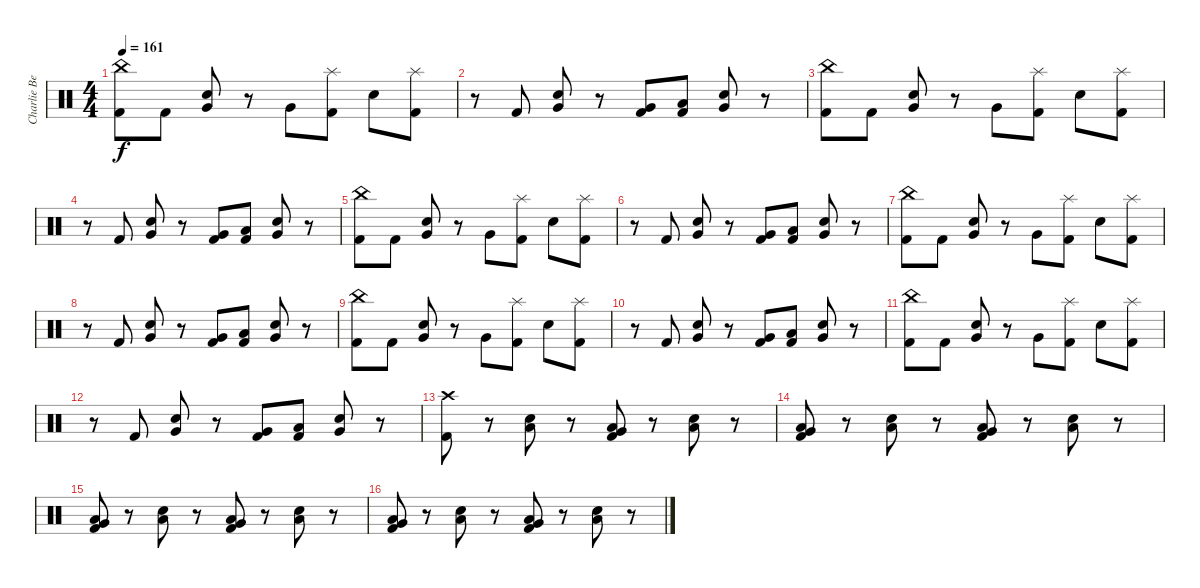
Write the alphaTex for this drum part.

\track ("Charlie Benante" "Charlie Be") {instrument percussion}
\staff {score}
\articulation defaults
\ts (4 4)
\tempo 161
\clef neutral
\ks c
("China (hit)" "Kick (hit) 2").8{dy f} "Kick (hit) 2".8 ("Very Low Tom (hit)" "Electric Snare (hit)").8 r.8 "Very Low Tom (hit)".8 ("Splash (hit)" "Kick (hit) 2").8 "Electric Snare (hit)".8 ("Splash (hit)" "Kick (hit) 2").8 |
r.8 "Kick (hit) 2".8 ("Very Low Tom (hit)" "Electric Snare (hit)").8 r.8 ("Very Low Tom (hit)" "Kick (hit) 2").8 ("Low Floor Tom (hit)" "Kick (hit) 2").8 ("Very Low Tom (hit)" "Electric Snare (hit)").8 r.8 |
("China (hit)" "Kick (hit) 2").8 "Kick (hit) 2".8 ("Very Low Tom (hit)" "Electric Snare (hit)").8 r.8 "Very Low Tom (hit)".8 ("Splash (hit)" "Kick (hit) 2").8 "Electric Snare (hit)".8 ("Splash (hit)" "Kick (hit) 2").8 |
r.8 "Kick (hit) 2".8 ("Very Low Tom (hit)" "Electric Snare (hit)").8 r.8 ("Very Low Tom (hit)" "Kick (hit) 2").8 ("Low Floor Tom (hit)" "Kick (hit) 2").8 ("Very Low Tom (hit)" "Electric Snare (hit)").8 r.8 |
("China (hit)" "Kick (hit) 2").8 "Kick (hit) 2".8 ("Very Low Tom (hit)" "Electric Snare (hit)").8 r.8 "Very Low Tom (hit)".8 ("Splash (hit)" "Kick (hit) 2").8 "Electric Snare (hit)".8 ("Splash (hit)" "Kick (hit) 2").8 |
r.8 "Kick (hit) 2".8 ("Very Low Tom (hit)" "Electric Snare (hit)").8 r.8 ("Very Low Tom (hit)" "Kick (hit) 2").8 ("Low Floor Tom (hit)" "Kick (hit) 2").8 ("Very Low Tom (hit)" "Electric Snare (hit)").8 r.8 |
("China (hit)" "Kick (hit) 2").8 "Kick (hit) 2".8 ("Very Low Tom (hit)" "Electric Snare (hit)").8 r.8 "Very Low Tom (hit)".8 ("Splash (hit)" "Kick (hit) 2").8 "Electric Snare (hit)".8 ("Splash (hit)" "Kick (hit) 2").8 |
r.8 "Kick (hit) 2".8 ("Very Low Tom (hit)" "Electric Snare (hit)").8 r.8 ("Very Low Tom (hit)" "Kick (hit) 2").8 ("Low Floor Tom (hit)" "Kick (hit) 2").8 ("Very Low Tom (hit)" "Electric Snare (hit)").8 r.8 |
("China (hit)" "Kick (hit) 2").8 "Kick (hit) 2".8 ("Very Low Tom (hit)" "Electric Snare (hit)").8 r.8 "Very Low Tom (hit)".8 ("Splash (hit)" "Kick (hit) 2").8 "Electric Snare (hit)".8 ("Splash (hit)" "Kick (hit) 2").8 |
r.8 "Kick (hit) 2".8 ("Very Low Tom (hit)" "Electric Snare (hit)").8 r.8 ("Very Low Tom (hit)" "Kick (hit) 2").8 ("Low Floor Tom (hit)" "Kick (hit) 2").8 ("Very Low Tom (hit)" "Electric Snare (hit)").8 r.8 |
("China (hit)" "Kick (hit) 2").8 "Kick (hit) 2".8 ("Very Low Tom (hit)" "Electric Snare (hit)").8 r.8 "Very Low Tom (hit)".8 ("Splash (hit)" "Kick (hit) 2").8 "Electric Snare (hit)".8 ("Splash (hit)" "Kick (hit) 2").8 |
r.8 "Kick (hit) 2".8 ("Very Low Tom (hit)" "Electric Snare (hit)").8 r.8 ("Very Low Tom (hit)" "Kick (hit) 2").8 ("Low Floor Tom (hit)" "Kick (hit) 2").8 ("Very Low Tom (hit)" "Electric Snare (hit)").8 r.8 |
("Crash high (hit)" "Kick (hit) 2").8 r.8 ("Low Floor Tom (hit)" "Electric Snare (hit)").8 r.8 ("Low Floor Tom (hit)" "Very Low Tom (hit)" "Kick (hit) 2").8 r.8 ("Low Floor Tom (hit)" "Electric Snare (hit)").8 r.8 |
("Low Floor Tom (hit)" "Very Low Tom (hit)" "Kick (hit) 2").8 r.8 ("Low Floor Tom (hit)" "Electric Snare (hit)").8 r.8 ("Low Floor Tom (hit)" "Very Low Tom (hit)" "Kick (hit) 2").8 r.8 ("Low Floor Tom (hit)" "Electric Snare (hit)").8 r.8 |
("Low Floor Tom (hit)" "Very Low Tom (hit)" "Kick (hit) 2").8 r.8 ("Low Floor Tom (hit)" "Electric Snare (hit)").8 r.8 ("Low Floor Tom (hit)" "Very Low Tom (hit)" "Kick (hit) 2").8 r.8 ("Low Floor Tom (hit)" "Electric Snare (hit)").8 r.8 |
("Low Floor Tom (hit)" "Very Low Tom (hit)" "Kick (hit) 2").8 r.8 ("Low Floor Tom (hit)" "Electric Snare (hit)").8 r.8 ("Low Floor Tom (hit)" "Very Low Tom (hit)" "Kick (hit) 2").8 r.8 ("Low Floor Tom (hit)" "Electric Snare (hit)").8 r.8
